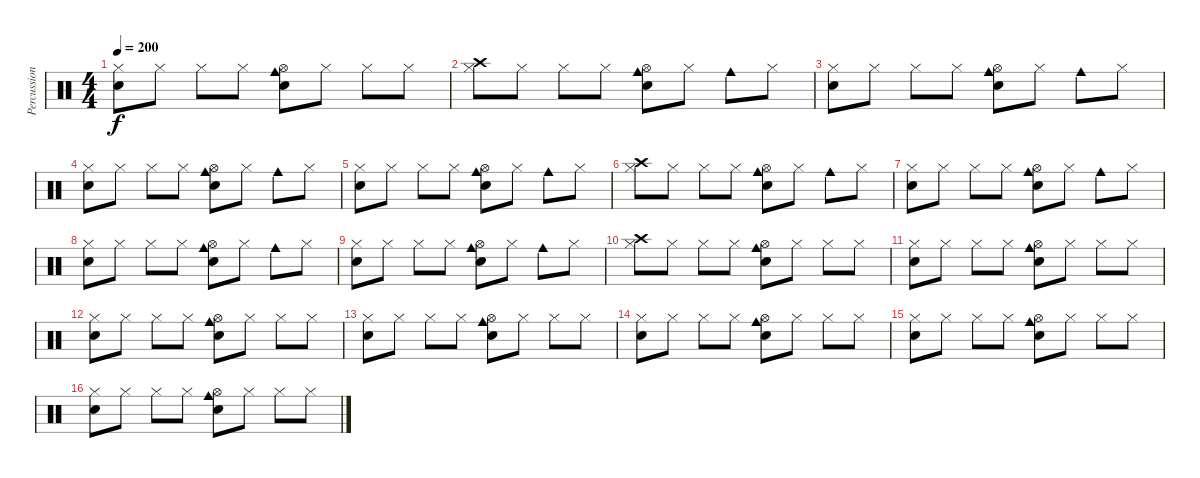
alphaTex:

\track ("Percussion" "Percussion") {instrument percussion}
\staff {score}
\articulation defaults
\ts (4 4)
\tempo 200
\clef neutral
\ks c
("Hi-Hat (closed)" "Electric Snare (hit)").8{dy f} "Hi-Hat (closed)".8 "Hi-Hat (closed)".8 "Hi-Hat (closed)".8 ("Cowbell medium (hit)" "Snare (hit) 2" "Hi-Hat (open)").8 "Hi-Hat (closed)".8 "Hi-Hat (closed)".8 "Hi-Hat (closed)".8 |
("Hi-Hat (closed)" "Crash high (hit)").8 "Hi-Hat (closed)".8 "Hi-Hat (closed)".8 "Hi-Hat (closed)".8 ("Cowbell medium (hit)" "Snare (hit) 2" "Hi-Hat (open)").8 "Hi-Hat (closed)".8 "Cowbell medium (hit)".8 "Hi-Hat (closed)".8 |
("Hi-Hat (closed)" "Electric Snare (hit)").8 "Hi-Hat (closed)".8 "Hi-Hat (closed)".8 "Hi-Hat (closed)".8 ("Cowbell medium (hit)" "Snare (hit) 2" "Hi-Hat (open)").8 "Hi-Hat (closed)".8 "Cowbell medium (hit)".8 "Hi-Hat (closed)".8 |
("Hi-Hat (closed)" "Electric Snare (hit)").8 "Hi-Hat (closed)".8 "Hi-Hat (closed)".8 "Hi-Hat (closed)".8 ("Cowbell medium (hit)" "Snare (hit) 2" "Hi-Hat (open)").8 "Hi-Hat (closed)".8 "Cowbell medium (hit)".8 "Hi-Hat (closed)".8 |
("Hi-Hat (closed)" "Electric Snare (hit)").8 "Hi-Hat (closed)".8 "Hi-Hat (closed)".8 "Hi-Hat (closed)".8 ("Cowbell medium (hit)" "Snare (hit) 2" "Hi-Hat (open)").8 "Hi-Hat (closed)".8 "Cowbell medium (hit)".8 "Hi-Hat (closed)".8 |
("Hi-Hat (closed)" "Crash high (hit)").8 "Hi-Hat (closed)".8 "Hi-Hat (closed)".8 "Hi-Hat (closed)".8 ("Cowbell medium (hit)" "Snare (hit) 2" "Hi-Hat (open)").8 "Hi-Hat (closed)".8 "Cowbell medium (hit)".8 "Hi-Hat (closed)".8 |
("Hi-Hat (closed)" "Electric Snare (hit)").8 "Hi-Hat (closed)".8 "Hi-Hat (closed)".8 "Hi-Hat (closed)".8 ("Cowbell medium (hit)" "Snare (hit) 2" "Hi-Hat (open)").8 "Hi-Hat (closed)".8 "Cowbell medium (hit)".8 "Hi-Hat (closed)".8 |
("Hi-Hat (closed)" "Electric Snare (hit)").8 "Hi-Hat (closed)".8 "Hi-Hat (closed)".8 "Hi-Hat (closed)".8 ("Cowbell medium (hit)" "Snare (hit) 2" "Hi-Hat (open)").8 "Hi-Hat (closed)".8 "Cowbell medium (hit)".8 "Hi-Hat (closed)".8 |
("Hi-Hat (closed)" "Electric Snare (hit)").8 "Hi-Hat (closed)".8 "Hi-Hat (closed)".8 "Hi-Hat (closed)".8 ("Cowbell medium (hit)" "Snare (hit) 2" "Hi-Hat (open)").8 "Hi-Hat (closed)".8 "Cowbell medium (hit)".8 "Hi-Hat (closed)".8 |
("Hi-Hat (closed)" "Crash high (hit)").8 "Hi-Hat (closed)".8 "Hi-Hat (closed)".8 "Hi-Hat (closed)".8 ("Cowbell medium (hit)" "Snare (hit) 2" "Hi-Hat (open)").8 "Hi-Hat (closed)".8 "Hi-Hat (closed)".8 "Hi-Hat (closed)".8 |
("Hi-Hat (closed)" "Electric Snare (hit)").8 "Hi-Hat (closed)".8 "Hi-Hat (closed)".8 "Hi-Hat (closed)".8 ("Cowbell medium (hit)" "Snare (hit) 2" "Hi-Hat (open)").8 "Hi-Hat (closed)".8 "Hi-Hat (closed)".8 "Hi-Hat (closed)".8 |
("Hi-Hat (closed)" "Electric Snare (hit)").8 "Hi-Hat (closed)".8 "Hi-Hat (closed)".8 "Hi-Hat (closed)".8 ("Cowbell medium (hit)" "Snare (hit) 2" "Hi-Hat (open)").8 "Hi-Hat (closed)".8 "Hi-Hat (closed)".8 "Hi-Hat (closed)".8 |
("Hi-Hat (closed)" "Electric Snare (hit)").8 "Hi-Hat (closed)".8 "Hi-Hat (closed)".8 "Hi-Hat (closed)".8 ("Cowbell medium (hit)" "Snare (hit) 2" "Hi-Hat (open)").8 "Hi-Hat (closed)".8 "Hi-Hat (closed)".8 "Hi-Hat (closed)".8 |
("Hi-Hat (closed)" "Electric Snare (hit)").8 "Hi-Hat (closed)".8 "Hi-Hat (closed)".8 "Hi-Hat (closed)".8 ("Cowbell medium (hit)" "Snare (hit) 2" "Hi-Hat (open)").8 "Hi-Hat (closed)".8 "Hi-Hat (closed)".8 "Hi-Hat (closed)".8 |
("Hi-Hat (closed)" "Electric Snare (hit)").8 "Hi-Hat (closed)".8 "Hi-Hat (closed)".8 "Hi-Hat (closed)".8 ("Cowbell medium (hit)" "Snare (hit) 2" "Hi-Hat (open)").8 "Hi-Hat (closed)".8 "Hi-Hat (closed)".8 "Hi-Hat (closed)".8 |
("Hi-Hat (closed)" "Electric Snare (hit)").8 "Hi-Hat (closed)".8 "Hi-Hat (closed)".8 "Hi-Hat (closed)".8 ("Cowbell medium (hit)" "Snare (hit) 2" "Hi-Hat (open)").8 "Hi-Hat (closed)".8 "Hi-Hat (closed)".8 "Hi-Hat (closed)".8
